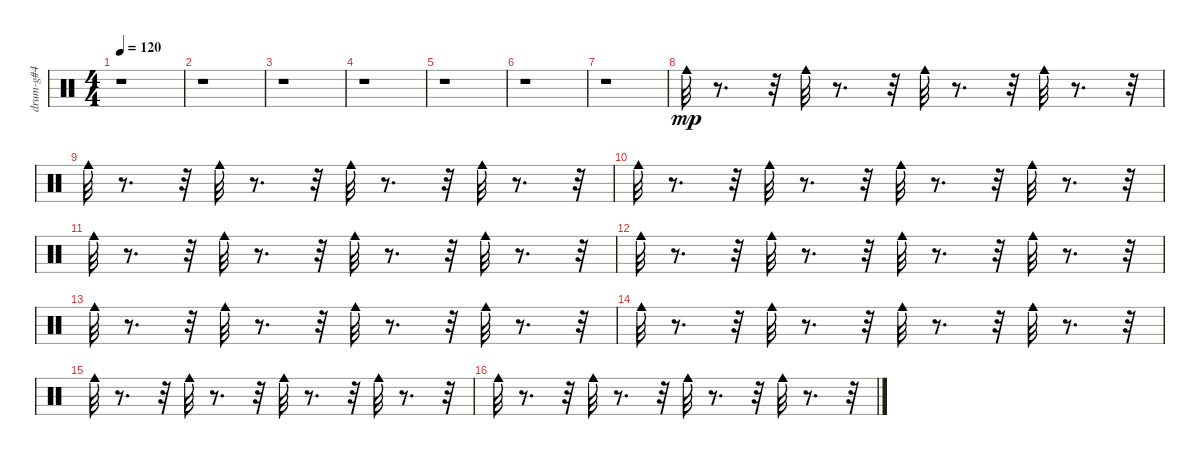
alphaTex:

\track ("drum-g#4" "drum-g#4") {instrument percussion}
\staff {score}
\articulation defaults
\ts (4 4)
\tempo 120
\clef neutral
\ks c
r.1{dy mp} |
r.1 |
r.1 |
r.1 |
r.1 |
r.1 |
r.1 |
"Cowbell medium (hit)".32 r.8{d} r.32 "Cowbell medium (hit)".32 r.8{d} r.32 "Cowbell medium (hit)".32 r.8{d} r.32 "Cowbell medium (hit)".32 r.8{d} r.32 |
"Cowbell medium (hit)".32 r.8{d} r.32 "Cowbell medium (hit)".32 r.8{d} r.32 "Cowbell medium (hit)".32 r.8{d} r.32 "Cowbell medium (hit)".32 r.8{d} r.32 |
"Cowbell medium (hit)".32 r.8{d} r.32 "Cowbell medium (hit)".32 r.8{d} r.32 "Cowbell medium (hit)".32 r.8{d} r.32 "Cowbell medium (hit)".32 r.8{d} r.32 |
"Cowbell medium (hit)".32 r.8{d} r.32 "Cowbell medium (hit)".32 r.8{d} r.32 "Cowbell medium (hit)".32 r.8{d} r.32 "Cowbell medium (hit)".32 r.8{d} r.32 |
"Cowbell medium (hit)".32 r.8{d} r.32 "Cowbell medium (hit)".32 r.8{d} r.32 "Cowbell medium (hit)".32 r.8{d} r.32 "Cowbell medium (hit)".32 r.8{d} r.32 |
"Cowbell medium (hit)".32 r.8{d} r.32 "Cowbell medium (hit)".32 r.8{d} r.32 "Cowbell medium (hit)".32 r.8{d} r.32 "Cowbell medium (hit)".32 r.8{d} r.32 |
"Cowbell medium (hit)".32 r.8{d} r.32 "Cowbell medium (hit)".32 r.8{d} r.32 "Cowbell medium (hit)".32 r.8{d} r.32 "Cowbell medium (hit)".32 r.8{d} r.32 |
"Cowbell medium (hit)".32 r.8{d} r.32 "Cowbell medium (hit)".32 r.8{d} r.32 "Cowbell medium (hit)".32 r.8{d} r.32 "Cowbell medium (hit)".32 r.8{d} r.32 |
"Cowbell medium (hit)".32 r.8{d} r.32 "Cowbell medium (hit)".32 r.8{d} r.32 "Cowbell medium (hit)".32 r.8{d} r.32 "Cowbell medium (hit)".32 r.8{d} r.32
